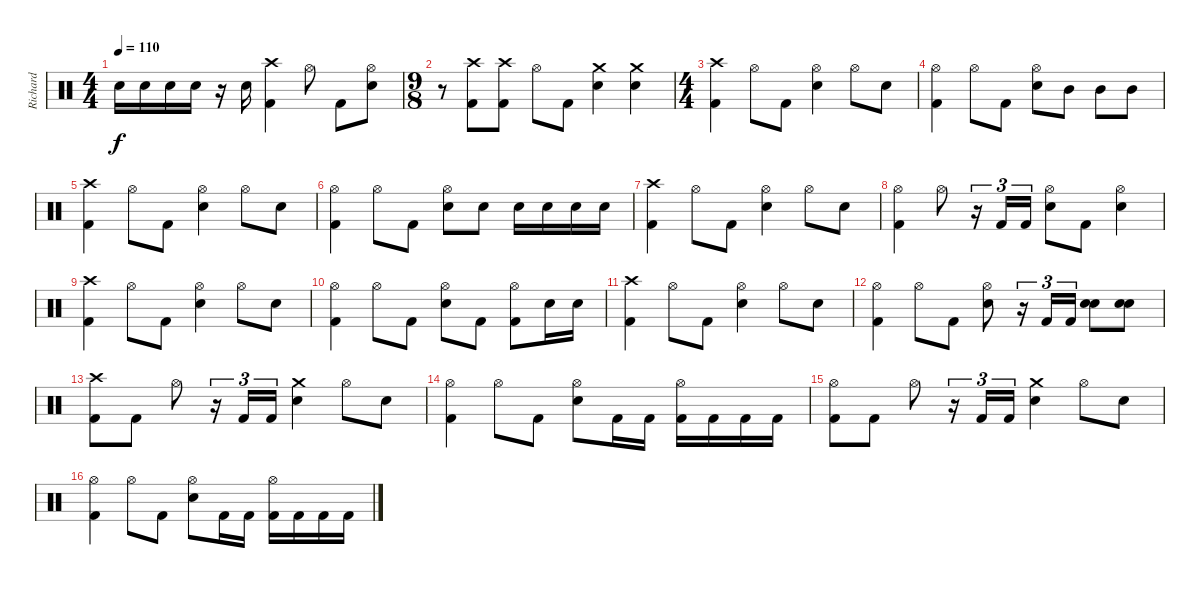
\track ("Richard" "Richard") {instrument percussion}
\staff {score}
\articulation defaults
\ts (4 4)
\tempo 110
\clef neutral
\ks c "Snare (hit) 2".16{dy f} "Snare (hit) 2".16 "Snare (hit) 2".16 "Snare (hit) 2".16
r.16 "Snare (hit) 2".16 ("Crash high (hit)" "Kick (hit) 2").4 "Hi-Hat (open)".8 "Kick (hit) 2".8 ("Hi-Hat (open)" "Snare (hit) 2").8 |
\ts (9 8)
r.8 ("Crash high (hit)" "Kick (hit) 2").8 ("Crash high (hit)" "Kick (hit) 2").8 "Hi-Hat (open)".8 "Kick (hit) 2".8 ("Crash medium (hit)" "Snare (hit) 2").4 ("Crash medium (hit)" "Snare (hit) 2").4 |
\ts (4 4)
("Crash high (hit)" "Kick (hit) 2").4 "Hi-Hat (open)".8 "Kick (hit) 2".8 ("Hi-Hat (open)" "Snare (hit) 2").4 "Hi-Hat (open)".8 "Snare (hit) 2".8 |
("Hi-Hat (open)" "Kick (hit) 2").4 "Hi-Hat (open)".8 "Kick (hit) 2".8 ("Hi-Hat (open)" "Snare (hit) 2").8 "Mid Tom (hit)".8 "Mid Tom (hit)".8 "Mid Tom (hit)".8 |
("Crash high (hit)" "Kick (hit) 2").4 "Hi-Hat (open)".8 "Kick (hit) 2".8 ("Hi-Hat (open)" "Snare (hit) 2").4 "Hi-Hat (open)".8 "Snare (hit) 2".8 |
("Hi-Hat (open)" "Kick (hit) 2").4 "Hi-Hat (open)".8 "Kick (hit) 2".8 ("Hi-Hat (open)" "Snare (hit) 2").8 "Snare (hit) 2".8 "Snare (hit) 2".16 "Snare (hit) 2".16 "Snare (hit) 2".16 "Snare (hit) 2".16 |
("Crash high (hit)" "Kick (hit) 2").4 "Hi-Hat (open)".8 "Kick (hit) 2".8 ("Hi-Hat (open)" "Snare (hit) 2").4 "Hi-Hat (open)".8 "Snare (hit) 2".8 |
("Hi-Hat (open)" "Kick (hit) 2").4 "Hi-Hat (open)".8 r.16{tu (3 2)} "Kick (hit) 2".16{tu (3 2)} "Kick (hit) 2".16{tu (3 2)} ("Hi-Hat (open)" "Snare (hit) 2").8 "Kick (hit) 2".8 ("Hi-Hat (open)" "Snare (hit) 2").4 |
("Crash high (hit)" "Kick (hit) 2").4 "Hi-Hat (open)".8 "Kick (hit) 2".8 ("Hi-Hat (open)" "Snare (hit) 2").4 "Hi-Hat (open)".8 "Snare (hit) 2".8 |
("Hi-Hat (open)" "Kick (hit) 2").4 "Hi-Hat (open)".8 "Kick (hit) 2".8 ("Hi-Hat (open)" "Snare (hit) 2").8 "Kick (hit) 2".8 ("Hi-Hat (open)" "Kick (hit) 2").8 "Snare (hit) 2".16 "Snare (hit) 2".16 |
("Crash high (hit)" "Kick (hit) 2").4 "Hi-Hat (open)".8 "Kick (hit) 2".8 ("Hi-Hat (open)" "Snare (hit) 2").4 "Hi-Hat (open)".8 "Snare (hit) 2".8 |
("Hi-Hat (open)" "Kick (hit) 2").4 "Hi-Hat (open)".8 "Kick (hit) 2".8 ("Hi-Hat (open)" "Snare (hit) 2").8 r.16{tu (3 2)} "Kick (hit) 2".16{tu (3 2)} "Kick (hit) 2".16{tu (3 2)} ("Snare (hit) 2" "Snare (hit) 2").8 ("Snare (hit) 2" "Snare (hit) 2").8 |
("Crash high (hit)" "Kick (hit) 2").8 "Kick (hit) 2".8 "Hi-Hat (open)".8 r.16{tu (3 2)} "Kick (hit) 2".16{tu (3 2)} "Kick (hit) 2".16{tu (3 2)} ("Crash medium (hit)" "Snare (hit) 2").4 "Hi-Hat (open)".8 "Snare (hit) 2".8 |
("Hi-Hat (open)" "Kick (hit) 2").4 "Hi-Hat (open)".8 "Kick (hit) 2".8 ("Hi-Hat (open)" "Snare (hit) 2").8 "Kick (hit) 2".16 "Kick (hit) 2".16 ("Hi-Hat (open)" "Kick (hit) 2").16 "Kick (hit) 2".16 "Kick (hit) 2".16 "Kick (hit) 2".16 |
("Hi-Hat (open)" "Kick (hit) 2").8 "Kick (hit) 2".8 "Hi-Hat (open)".8 r.16{tu (3 2)} "Kick (hit) 2".16{tu (3 2)} "Kick (hit) 2".16{tu (3 2)} ("Crash medium (hit)" "Snare (hit) 2").4 "Hi-Hat (open)".8 "Snare (hit) 2".8 |
("Hi-Hat (open)" "Kick (hit) 2").4 "Hi-Hat (open)".8 "Kick (hit) 2".8 ("Hi-Hat (open)" "Snare (hit) 2").8 "Kick (hit) 2".16 "Kick (hit) 2".16 ("Hi-Hat (open)" "Kick (hit) 2").16 "Kick (hit) 2".16 "Kick (hit) 2".16 "Kick (hit) 2".16
